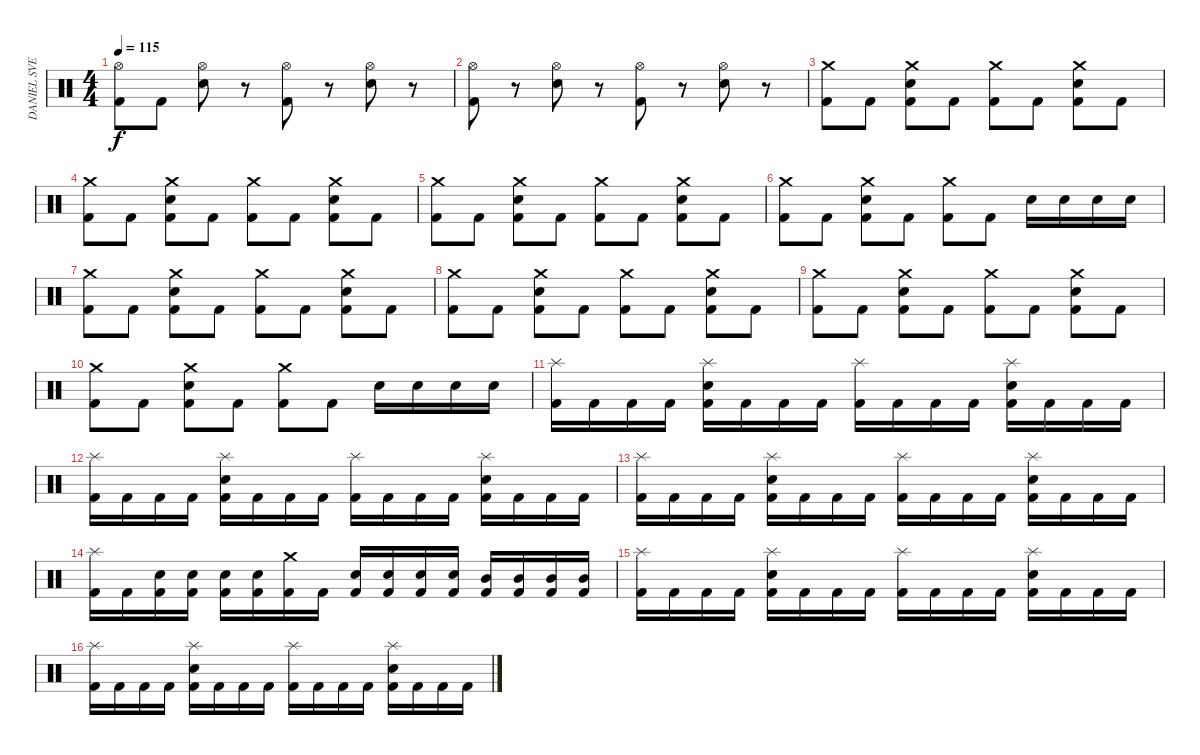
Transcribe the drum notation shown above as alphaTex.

\track ("DANIEL SVENSSON" "DANIEL SVE") {instrument percussion}
\staff {score}
\articulation defaults
\ts (4 4)
\tempo 115
\clef neutral
\ks c
("Hi-Hat (open)" "Kick (hit) 2").8{dy f} "Kick (hit) 2".8 ("Hi-Hat (open)" "Snare (hit) 2").8 r.8 ("Hi-Hat (open)" "Kick (hit) 2").8 r.8 ("Hi-Hat (open)" "Snare (hit) 2").8 r.8 |
("Hi-Hat (open)" "Kick (hit) 2").8 r.8 ("Hi-Hat (open)" "Snare (hit) 2").8 r.8 ("Hi-Hat (open)" "Kick (hit) 2").8 r.8 ("Hi-Hat (open)" "Snare (hit) 2").8 r.8 |
("Crash medium (hit)" "Kick (hit) 2").8 "Kick (hit) 2".8 ("Crash medium (hit)" "Snare (hit) 2" "Kick (hit) 2").8 "Kick (hit) 2".8 ("Crash medium (hit)" "Kick (hit) 2").8 "Kick (hit) 2".8 ("Crash medium (hit)" "Snare (hit) 2" "Kick (hit) 2").8 "Kick (hit) 2".8 |
("Crash medium (hit)" "Kick (hit) 2").8 "Kick (hit) 2".8 ("Crash medium (hit)" "Snare (hit) 2" "Kick (hit) 2").8 "Kick (hit) 2".8 ("Crash medium (hit)" "Kick (hit) 2").8 "Kick (hit) 2".8 ("Crash medium (hit)" "Snare (hit) 2" "Kick (hit) 2").8 "Kick (hit) 2".8 |
("Crash medium (hit)" "Kick (hit) 2").8 "Kick (hit) 2".8 ("Crash medium (hit)" "Snare (hit) 2" "Kick (hit) 2").8 "Kick (hit) 2".8 ("Crash medium (hit)" "Kick (hit) 2").8 "Kick (hit) 2".8 ("Crash medium (hit)" "Snare (hit) 2" "Kick (hit) 2").8 "Kick (hit) 2".8 |
("Crash medium (hit)" "Kick (hit) 2").8 "Kick (hit) 2".8 ("Crash medium (hit)" "Snare (hit) 2" "Kick (hit) 2").8 "Kick (hit) 2".8 ("Crash medium (hit)" "Kick (hit) 2").8 "Kick (hit) 2".8 "Snare (hit) 2".16 "Snare (hit) 2".16 "Snare (hit) 2".16 "Snare (hit) 2".16 |
("Crash medium (hit)" "Kick (hit) 2").8 "Kick (hit) 2".8 ("Crash medium (hit)" "Snare (hit) 2" "Kick (hit) 2").8 "Kick (hit) 2".8 ("Crash medium (hit)" "Kick (hit) 2").8 "Kick (hit) 2".8 ("Crash medium (hit)" "Snare (hit) 2" "Kick (hit) 2").8 "Kick (hit) 2".8 |
("Crash medium (hit)" "Kick (hit) 2").8 "Kick (hit) 2".8 ("Crash medium (hit)" "Snare (hit) 2" "Kick (hit) 2").8 "Kick (hit) 2".8 ("Crash medium (hit)" "Kick (hit) 2").8 "Kick (hit) 2".8 ("Crash medium (hit)" "Snare (hit) 2" "Kick (hit) 2").8 "Kick (hit) 2".8 |
("Crash medium (hit)" "Kick (hit) 2").8 "Kick (hit) 2".8 ("Crash medium (hit)" "Snare (hit) 2" "Kick (hit) 2").8 "Kick (hit) 2".8 ("Crash medium (hit)" "Kick (hit) 2").8 "Kick (hit) 2".8 ("Crash medium (hit)" "Snare (hit) 2" "Kick (hit) 2").8 "Kick (hit) 2".8 |
("Crash medium (hit)" "Kick (hit) 2").8 "Kick (hit) 2".8 ("Crash medium (hit)" "Snare (hit) 2" "Kick (hit) 2").8 "Kick (hit) 2".8 ("Crash medium (hit)" "Kick (hit) 2").8 "Kick (hit) 2".8 "Snare (hit) 2".16 "Snare (hit) 2".16 "Snare (hit) 2".16 "Snare (hit) 2".16 |
("Splash (hit)" "Kick (hit) 2").16 "Kick (hit) 2".16 "Kick (hit) 2".16 "Kick (hit) 2".16 ("Splash (hit)" "Snare (hit) 2" "Kick (hit) 2").16 "Kick (hit) 2".16 "Kick (hit) 2".16 "Kick (hit) 2".16 ("Splash (hit)" "Kick (hit) 2").16 "Kick (hit) 2".16 "Kick (hit) 2".16 "Kick (hit) 2".16 ("Splash (hit)" "Snare (hit) 2" "Kick (hit) 2").16 "Kick (hit) 2".16 "Kick (hit) 2".16 "Kick (hit) 2".16 |
("Splash (hit)" "Kick (hit) 2").16 "Kick (hit) 2".16 "Kick (hit) 2".16 "Kick (hit) 2".16 ("Splash (hit)" "Snare (hit) 2" "Kick (hit) 2").16 "Kick (hit) 2".16 "Kick (hit) 2".16 "Kick (hit) 2".16 ("Splash (hit)" "Kick (hit) 2").16 "Kick (hit) 2".16 "Kick (hit) 2".16 "Kick (hit) 2".16 ("Splash (hit)" "Snare (hit) 2" "Kick (hit) 2").16 "Kick (hit) 2".16 "Kick (hit) 2".16 "Kick (hit) 2".16 |
("Splash (hit)" "Kick (hit) 2").16 "Kick (hit) 2".16 "Kick (hit) 2".16 "Kick (hit) 2".16 ("Splash (hit)" "Snare (hit) 2" "Kick (hit) 2").16 "Kick (hit) 2".16 "Kick (hit) 2".16 "Kick (hit) 2".16 ("Splash (hit)" "Kick (hit) 2").16 "Kick (hit) 2".16 "Kick (hit) 2".16 "Kick (hit) 2".16 ("Splash (hit)" "Snare (hit) 2" "Kick (hit) 2").16 "Kick (hit) 2".16 "Kick (hit) 2".16 "Kick (hit) 2".16 |
("Splash (hit)" "Kick (hit) 2").16 "Kick (hit) 2".16 ("Snare (hit) 2" "Kick (hit) 2").16 ("Snare (hit) 2" "Kick (hit) 2").16 ("Snare (hit) 2" "Kick (hit) 2").16 ("Snare (hit) 2" "Kick (hit) 2").16 ("Crash medium (hit)" "Kick (hit) 2").16 "Kick (hit) 2".16 ("Snare (hit) 2" "Kick (hit) 2").16 ("Snare (hit) 2" "Kick (hit) 2").16 ("Snare (hit) 2" "Kick (hit) 2").16 ("Snare (hit) 2" "Kick (hit) 2").16 ("Mid Tom (hit)" "Kick (hit) 2").16 ("Mid Tom (hit)" "Kick (hit) 2").16 ("Mid Tom (hit)" "Kick (hit) 2").16 ("Mid Tom (hit)" "Kick (hit) 2").16 |
("Splash (hit)" "Kick (hit) 2").16 "Kick (hit) 2".16 "Kick (hit) 2".16 "Kick (hit) 2".16 ("Splash (hit)" "Snare (hit) 2" "Kick (hit) 2").16 "Kick (hit) 2".16 "Kick (hit) 2".16 "Kick (hit) 2".16 ("Splash (hit)" "Kick (hit) 2").16 "Kick (hit) 2".16 "Kick (hit) 2".16 "Kick (hit) 2".16 ("Splash (hit)" "Snare (hit) 2" "Kick (hit) 2").16 "Kick (hit) 2".16 "Kick (hit) 2".16 "Kick (hit) 2".16 |
("Splash (hit)" "Kick (hit) 2").16 "Kick (hit) 2".16 "Kick (hit) 2".16 "Kick (hit) 2".16 ("Splash (hit)" "Snare (hit) 2" "Kick (hit) 2").16 "Kick (hit) 2".16 "Kick (hit) 2".16 "Kick (hit) 2".16 ("Splash (hit)" "Kick (hit) 2").16 "Kick (hit) 2".16 "Kick (hit) 2".16 "Kick (hit) 2".16 ("Splash (hit)" "Snare (hit) 2" "Kick (hit) 2").16 "Kick (hit) 2".16 "Kick (hit) 2".16 "Kick (hit) 2".16
